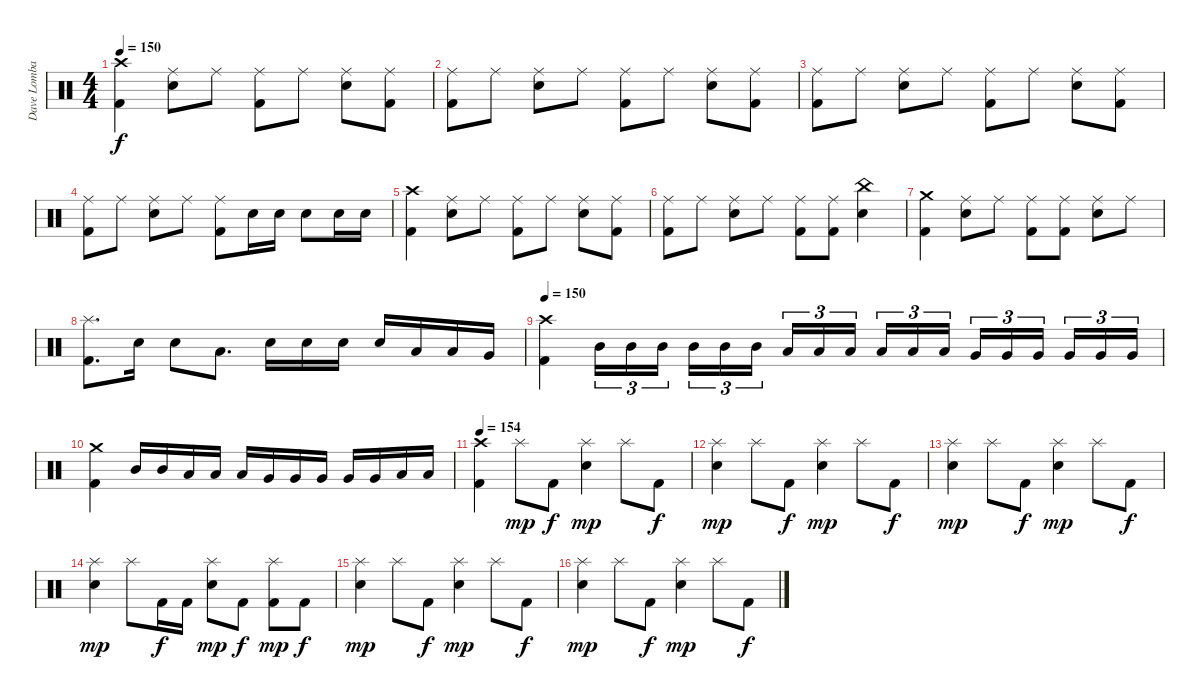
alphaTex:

\track ("Dave Lombardo" "Dave Lomba") {instrument percussion}
\staff {score}
\articulation defaults
\ts (4 4)
\tempo 150
\clef neutral
\ks c
("Crash high (hit)" "Kick (hit) 2").4{dy f} ("Ride (middle)" "Snare (hit) 2").8 "Ride (middle)".8 ("Ride (middle)" "Kick (hit) 2").8 "Ride (middle)".8 ("Ride (middle)" "Snare (hit) 2").8 ("Ride (middle)" "Kick (hit) 2").8 |
("Ride (middle)" "Kick (hit) 2").8 "Ride (middle)".8 ("Ride (middle)" "Snare (hit) 2").8 "Ride (middle)".8 ("Ride (middle)" "Kick (hit) 2").8 "Ride (middle)".8 ("Ride (middle)" "Snare (hit) 2").8 ("Ride (middle)" "Kick (hit) 2").8 |
("Ride (middle)" "Kick (hit) 2").8 "Ride (middle)".8 ("Ride (middle)" "Snare (hit) 2").8 "Ride (middle)".8 ("Ride (middle)" "Kick (hit) 2").8 "Ride (middle)".8 ("Ride (middle)" "Snare (hit) 2").8 ("Ride (middle)" "Kick (hit) 2").8 |
("Ride (middle)" "Kick (hit) 2").8 "Ride (middle)".8 ("Ride (middle)" "Snare (hit) 2").8 "Ride (middle)".8 ("Ride (middle)" "Kick (hit) 2").8 "Snare (hit) 2".16 "Snare (hit) 2".16 "Snare (hit) 2".8 "Snare (hit) 2".16 "Snare (hit) 2".16 |
("Crash high (hit)" "Kick (hit) 2").4 ("Ride (middle)" "Snare (hit) 2").8 "Ride (middle)".8 ("Ride (middle)" "Kick (hit) 2").8 "Ride (middle)".8 ("Ride (middle)" "Snare (hit) 2").8 ("Ride (middle)" "Kick (hit) 2").8 |
("Ride (middle)" "Kick (hit) 2").8 "Ride (middle)".8 ("Ride (middle)" "Snare (hit) 2").8 "Ride (middle)".8 ("Ride (middle)" "Kick (hit) 2").8 ("Ride (middle)" "Kick (hit) 2").8 ("China (hit)" "Snare (hit) 2").4 |
("Crash medium (hit)" "Kick (hit) 2").4 ("Ride (middle)" "Snare (hit) 2").8 "Ride (middle)".8 ("Ride (middle)" "Kick (hit) 2").8 ("Ride (middle)" "Kick (hit) 2").8 ("Ride (middle)" "Snare (hit) 2").8 "Ride (middle)".8 |
("Splash (hit)" "Kick (hit) 2").8{d} "Snare (hit) 2".16 "Snare (hit) 2".8 "Low Tom (hit)".8{d} "Snare (hit) 2".16 "Snare (hit) 2".16 "Snare (hit) 2".16 "Snare (hit) 2".16 "Low Tom (hit)".16 "Low Tom (hit)".16 "Very Low Tom (hit)".16 |
\tempo 150
("Crash high (hit)" "Kick (hit) 2").4 "Mid Tom (hit)".16{tu (3 2)} "Mid Tom (hit)".16{tu (3 2)} "Mid Tom (hit)".16{tu (3 2) beam splitsecondary} "Mid Tom (hit)".16{tu (3 2)} "Mid Tom (hit)".16{tu (3 2)} "Mid Tom (hit)".16{tu (3 2)} "Low Tom (hit)".16{tu (3 2)} "Low Tom (hit)".16{tu (3 2)} "Low Tom (hit)".16{tu (3 2) beam splitsecondary} "Low Tom (hit)".16{tu (3 2)} "Low Tom (hit)".16{tu (3 2)} "Low Tom (hit)".16{tu (3 2)} "Very Low Tom (hit)".16{tu (3 2)} "Very Low Tom (hit)".16{tu (3 2)} "Very Low Tom (hit)".16{tu (3 2) beam splitsecondary} "Very Low Tom (hit)".16{tu (3 2)} "Very Low Tom (hit)".16{tu (3 2)} "Very Low Tom (hit)".16{tu (3 2)} |
("Crash medium (hit)" "Kick (hit) 2").4 "Mid Tom (hit)".16 "Mid Tom (hit)".16 "Low Tom (hit)".16 "Low Tom (hit)".16 "Low Tom (hit)".16 "Very Low Tom (hit)".16 "Very Low Tom (hit)".16 "Very Low Tom (hit)".16 "Very Low Tom (hit)".16 "Very Low Tom (hit)".16 "Low Floor Tom (hit)".16 "Low Floor Tom (hit)".16 |
\tempo 154
("Crash high (hit)" "Kick (hit) 2").4 "Splash (hit)".8{dy mp} "Kick (hit) 2".8{dy f} ("Splash (hit)" "Snare (hit) 2").4{dy mp} "Splash (hit)".8 "Kick (hit) 2".8{dy f} |
("Splash (hit)" "Snare (hit) 2").4{dy mp} "Splash (hit)".8 "Kick (hit) 2".8{dy f} ("Splash (hit)" "Snare (hit) 2").4{dy mp} "Splash (hit)".8 "Kick (hit) 2".8{dy f} |
("Splash (hit)" "Snare (hit) 2").4{dy mp} "Splash (hit)".8 "Kick (hit) 2".8{dy f} ("Splash (hit)" "Snare (hit) 2").4{dy mp} "Splash (hit)".8 "Kick (hit) 2".8{dy f} |
("Splash (hit)" "Snare (hit) 2").4{dy mp} "Splash (hit)".8 "Kick (hit) 2".16{dy f} "Kick (hit) 2".16 ("Splash (hit)" "Snare (hit) 2").8{dy mp} "Kick (hit) 2".8{dy f} ("Splash (hit)" "Kick (hit) 2").8{dy mp} "Kick (hit) 2".8{dy f} |
("Splash (hit)" "Snare (hit) 2").4{dy mp} "Splash (hit)".8 "Kick (hit) 2".8{dy f} ("Splash (hit)" "Snare (hit) 2").4{dy mp} "Splash (hit)".8 "Kick (hit) 2".8{dy f} |
("Splash (hit)" "Snare (hit) 2").4{dy mp} "Splash (hit)".8 "Kick (hit) 2".8{dy f} ("Splash (hit)" "Snare (hit) 2").4{dy mp} "Splash (hit)".8 "Kick (hit) 2".8{dy f}
